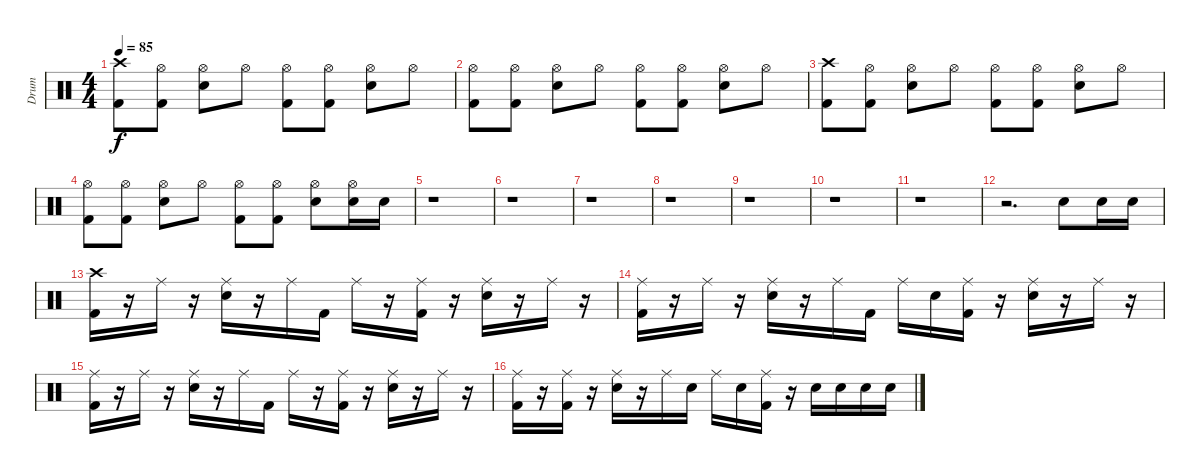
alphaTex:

\track ("Drum" "Drum") {instrument percussion}
\staff {score}
\articulation defaults
\ts (4 4)
\tempo 85
\clef neutral
\ks c
("Crash high (hit)" "Kick (hit) 2").8{dy f} ("Hi-Hat (open)" "Kick (hit) 2").8 ("Hi-Hat (open)" "Electric Snare (hit)").8 "Hi-Hat (open)".8 ("Hi-Hat (open)" "Kick (hit) 2").8 ("Hi-Hat (open)" "Kick (hit) 2").8 ("Hi-Hat (open)" "Electric Snare (hit)").8 "Hi-Hat (open)".8 |
("Hi-Hat (open)" "Kick (hit) 2").8 ("Hi-Hat (open)" "Kick (hit) 2").8 ("Hi-Hat (open)" "Electric Snare (hit)").8 "Hi-Hat (open)".8 ("Hi-Hat (open)" "Kick (hit) 2").8 ("Hi-Hat (open)" "Kick (hit) 2").8 ("Hi-Hat (open)" "Electric Snare (hit)").8 "Hi-Hat (open)".8 |
("Crash high (hit)" "Kick (hit) 2").8 ("Hi-Hat (open)" "Kick (hit) 2").8 ("Hi-Hat (open)" "Electric Snare (hit)").8 "Hi-Hat (open)".8 ("Hi-Hat (open)" "Kick (hit) 2").8 ("Hi-Hat (open)" "Kick (hit) 2").8 ("Hi-Hat (open)" "Electric Snare (hit)").8 "Hi-Hat (open)".8 |
("Hi-Hat (open)" "Kick (hit) 2").8 ("Hi-Hat (open)" "Kick (hit) 2").8 ("Hi-Hat (open)" "Electric Snare (hit)").8 "Hi-Hat (open)".8 ("Hi-Hat (open)" "Kick (hit) 2").8 ("Hi-Hat (open)" "Kick (hit) 2").8 ("Hi-Hat (open)" "Electric Snare (hit)").8 ("Hi-Hat (open)" "Electric Snare (hit)").16 "Electric Snare (hit)".16 |
r.1 |
r.1 |
r.1 |
r.1 |
r.1 |
r.1 |
r.1 |
r.2{d} "Electric Snare (hit)".8 "Electric Snare (hit)".16 "Electric Snare (hit)".16 |
("Crash high (hit)" "Kick (hit) 2").16 r.16 "Ride (middle)".16 r.16 ("Ride (middle)" "Electric Snare (hit)").16 r.16 "Ride (middle)".16 "Kick (hit) 2".16 "Ride (middle)".16 r.16 ("Ride (middle)" "Kick (hit) 2").16 r.16 ("Ride (middle)" "Electric Snare (hit)").16 r.16 "Ride (middle)".16 r.16 |
("Ride (middle)" "Kick (hit) 2").16 r.16 "Ride (middle)".16 r.16 ("Ride (middle)" "Electric Snare (hit)").16 r.16 "Ride (middle)".16 "Kick (hit) 2".16 "Ride (middle)".16 "Electric Snare (hit)".16 ("Ride (middle)" "Kick (hit) 2").16 r.16 ("Ride (middle)" "Electric Snare (hit)").16 r.16 "Ride (middle)".16 r.16 |
("Ride (middle)" "Kick (hit) 2").16 r.16 "Ride (middle)".16 r.16 ("Ride (middle)" "Electric Snare (hit)").16 r.16 "Ride (middle)".16 "Kick (hit) 2".16 "Ride (middle)".16 r.16 ("Ride (middle)" "Kick (hit) 2").16 r.16 ("Ride (middle)" "Electric Snare (hit)").16 r.16 "Ride (middle)".16 r.16 |
("Ride (middle)" "Kick (hit) 2").16 r.16 ("Ride (middle)" "Kick (hit) 2").16 r.16 ("Ride (middle)" "Electric Snare (hit)").16 r.16 "Ride (middle)".16 "Electric Snare (hit)".16 "Ride (middle)".16 "Electric Snare (hit)".16 ("Ride (middle)" "Kick (hit) 2").16 r.16 "Electric Snare (hit)".16 "Electric Snare (hit)".16 "Electric Snare (hit)".16 "Electric Snare (hit)".16
